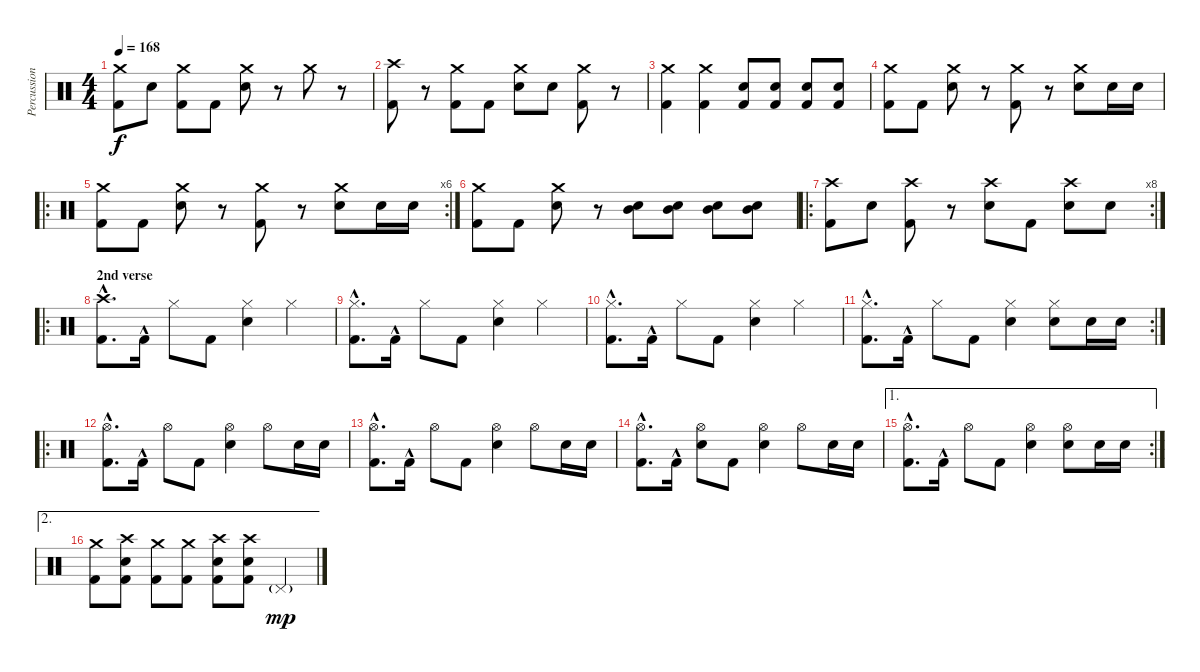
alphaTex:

\track ("Percussion" "Percussion") {instrument percussion}
\staff {score}
\articulation defaults
\ts (4 4)
\tempo 168
\clef neutral
\ks c
("Crash medium (hit)" "Kick (hit) 2").8{dy f} "Electric Snare (hit)".8 ("Crash medium (hit)" "Kick (hit) 2").8 "Kick (hit) 2".8 ("Crash medium (hit)" "Electric Snare (hit)").8 r.8 "Crash medium (hit)".8 r.8 |
("Crash high (hit)" "Kick (hit) 2").8 r.8 ("Crash medium (hit)" "Kick (hit) 2").8 "Kick (hit) 2".8 ("Crash medium (hit)" "Electric Snare (hit)").8 "Electric Snare (hit)".8 ("Crash medium (hit)" "Kick (hit) 2").8 r.8 |
("Crash medium (hit)" "Kick (hit) 2").4 ("Crash medium (hit)" "Kick (hit) 2").4 ("Electric Snare (hit)" "Kick (hit) 2").8 ("Electric Snare (hit)" "Kick (hit) 2").8 ("Electric Snare (hit)" "Kick (hit) 2").8 ("Electric Snare (hit)" "Kick (hit) 2").8 |
("Crash medium (hit)" "Kick (hit) 2").8 "Kick (hit) 2".8 ("Crash medium (hit)" "Electric Snare (hit)").8 r.8 ("Crash medium (hit)" "Kick (hit) 2").8 r.8 ("Crash medium (hit)" "Electric Snare (hit)").8 "Electric Snare (hit)".16 "Electric Snare (hit)".16 |
\ro
\rc 6
("Crash medium (hit)" "Kick (hit) 2").8 "Kick (hit) 2".8 ("Crash medium (hit)" "Electric Snare (hit)").8 r.8 ("Crash medium (hit)" "Kick (hit) 2").8 r.8 ("Crash medium (hit)" "Electric Snare (hit)").8 "Electric Snare (hit)".16 "Electric Snare (hit)".16 |
("Crash medium (hit)" "Kick (hit) 2").8 "Kick (hit) 2".8 ("Crash medium (hit)" "Electric Snare (hit)").8 r.8 ("Electric Snare (hit)" "Mid Tom (hit)").8 ("Electric Snare (hit)" "Mid Tom (hit)").8 ("Electric Snare (hit)" "Mid Tom (hit)").8 ("Electric Snare (hit)" "Mid Tom (hit)").8 |
\ro
\rc 8
("Crash high (hit)" "Kick (hit) 2").8 "Electric Snare (hit)".8 ("Crash high (hit)" "Kick (hit) 2").8 r.8 ("Crash high (hit)" "Electric Snare (hit)").8 "Kick (hit) 2".8 ("Crash high (hit)" "Electric Snare (hit)").8 "Electric Snare (hit)".8 |
\ro
\section ("" "2nd verse")
("Crash high (hit)" "Kick (hit) 2"{hac}).8{d} "Kick (hit) 2"{hac}.16 "Hi-Hat (closed)".8 "Kick (hit) 2".8 ("Hi-Hat (closed)" "Electric Snare (hit)").4 "Hi-Hat (closed)".4 |
("Hi-Hat (closed)" "Kick (hit) 2"{hac}).8{d} "Kick (hit) 2"{hac}.16 "Hi-Hat (closed)".8 "Kick (hit) 2".8 ("Hi-Hat (closed)" "Electric Snare (hit)").4 "Hi-Hat (closed)".4 |
("Hi-Hat (closed)" "Kick (hit) 2"{hac}).8{d} "Kick (hit) 2"{hac}.16 "Hi-Hat (closed)".8 "Kick (hit) 2".8 ("Hi-Hat (closed)" "Electric Snare (hit)").4 "Hi-Hat (closed)".4 |
\rc 2
("Hi-Hat (closed)" "Kick (hit) 2"{hac}).8{d} "Kick (hit) 2"{hac}.16 "Hi-Hat (closed)".8 "Kick (hit) 2".8 ("Hi-Hat (closed)" "Electric Snare (hit)").4 ("Hi-Hat (closed)" "Electric Snare (hit)").8 "Electric Snare (hit)".16 "Electric Snare (hit)".16 |
\ro
("Hi-Hat (open)" "Kick (hit) 2"{hac}).8{d} "Kick (hit) 2"{hac}.16 "Hi-Hat (open)".8 "Kick (hit) 2".8 ("Hi-Hat (open)" "Electric Snare (hit)").4 "Hi-Hat (open)".8 "Electric Snare (hit)".16 "Electric Snare (hit)".16 |
("Hi-Hat (open)" "Kick (hit) 2"{hac}).8{d} "Kick (hit) 2"{hac}.16 "Hi-Hat (open)".8 "Kick (hit) 2".8 ("Hi-Hat (open)" "Electric Snare (hit)").4 "Hi-Hat (open)".8 "Electric Snare (hit)".16 "Electric Snare (hit)".16 |
("Hi-Hat (open)" "Kick (hit) 2"{hac}).8{d} "Kick (hit) 2"{hac}.16 ("Hi-Hat (open)" "Electric Snare (hit)").8 "Kick (hit) 2".8 ("Hi-Hat (open)" "Electric Snare (hit)").4 "Hi-Hat (open)".8 "Electric Snare (hit)".16 "Electric Snare (hit)".16 |
\ae 1
\rc 2
("Hi-Hat (open)" "Kick (hit) 2"{hac}).8{d} "Kick (hit) 2"{hac}.16 "Hi-Hat (open)".8 "Kick (hit) 2".8 ("Hi-Hat (open)" "Electric Snare (hit)").4 ("Hi-Hat (open)" "Electric Snare (hit)").8 "Electric Snare (hit)".16 "Electric Snare (hit)".16 |
\ae 2
("Crash medium (hit)" "Kick (hit) 2").8 ("Crash high (hit)" "Electric Snare (hit)" "Kick (hit) 2").8 ("Crash medium (hit)" "Kick (hit) 2").8 ("Crash medium (hit)" "Kick (hit) 2").8 ("Crash high (hit)" "Electric Snare (hit)" "Kick (hit) 2").8 ("Crash high (hit)" "Electric Snare (hit)" "Kick (hit) 2").8 "Pedal Hi-Hat (hit)"{g}.4{dy mp}
